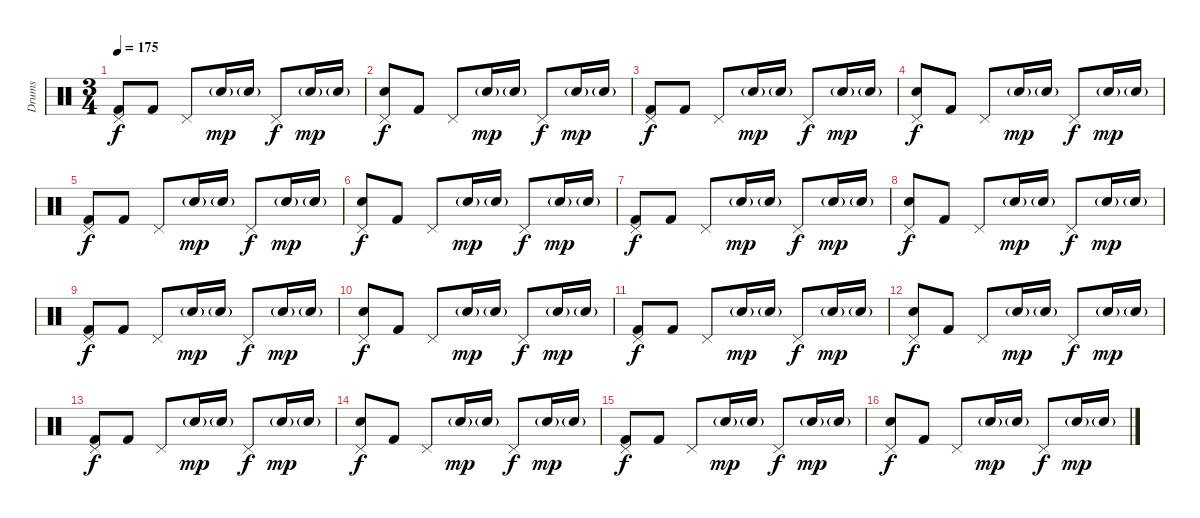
\track ("Drums" "Drums") {instrument percussion}
\staff {score}
\articulation defaults
\ts (3 4)
\tempo 175
\clef neutral
\ks c
("Pedal Hi-Hat (hit)" "Kick (hit) 2").8{dy f} "Kick (hit) 2".8 "Pedal Hi-Hat (hit)".8 "Electric Snare (hit)"{g}.16{dy mp} "Electric Snare (hit)"{g}.16 "Pedal Hi-Hat (hit)".8{dy f} "Electric Snare (hit)"{g}.16{dy mp} "Electric Snare (hit)"{g}.16 |
("Pedal Hi-Hat (hit)" "Electric Snare (hit)").8{dy f} "Kick (hit) 2".8 "Pedal Hi-Hat (hit)".8 "Electric Snare (hit)"{g}.16{dy mp} "Electric Snare (hit)"{g}.16 "Pedal Hi-Hat (hit)".8{dy f} "Electric Snare (hit)"{g}.16{dy mp} "Electric Snare (hit)"{g}.16 |
("Pedal Hi-Hat (hit)" "Kick (hit) 2").8{dy f} "Kick (hit) 2".8 "Pedal Hi-Hat (hit)".8 "Electric Snare (hit)"{g}.16{dy mp} "Electric Snare (hit)"{g}.16 "Pedal Hi-Hat (hit)".8{dy f} "Electric Snare (hit)"{g}.16{dy mp} "Electric Snare (hit)"{g}.16 |
("Pedal Hi-Hat (hit)" "Electric Snare (hit)").8{dy f} "Kick (hit) 2".8 "Pedal Hi-Hat (hit)".8 "Electric Snare (hit)"{g}.16{dy mp} "Electric Snare (hit)"{g}.16 "Pedal Hi-Hat (hit)".8{dy f} "Electric Snare (hit)"{g}.16{dy mp} "Electric Snare (hit)"{g}.16 |
("Pedal Hi-Hat (hit)" "Kick (hit) 2").8{dy f} "Kick (hit) 2".8 "Pedal Hi-Hat (hit)".8 "Electric Snare (hit)"{g}.16{dy mp} "Electric Snare (hit)"{g}.16 "Pedal Hi-Hat (hit)".8{dy f} "Electric Snare (hit)"{g}.16{dy mp} "Electric Snare (hit)"{g}.16 |
("Pedal Hi-Hat (hit)" "Electric Snare (hit)").8{dy f} "Kick (hit) 2".8 "Pedal Hi-Hat (hit)".8 "Electric Snare (hit)"{g}.16{dy mp} "Electric Snare (hit)"{g}.16 "Pedal Hi-Hat (hit)".8{dy f} "Electric Snare (hit)"{g}.16{dy mp} "Electric Snare (hit)"{g}.16 |
("Pedal Hi-Hat (hit)" "Kick (hit) 2").8{dy f} "Kick (hit) 2".8 "Pedal Hi-Hat (hit)".8 "Electric Snare (hit)"{g}.16{dy mp} "Electric Snare (hit)"{g}.16 "Pedal Hi-Hat (hit)".8{dy f} "Electric Snare (hit)"{g}.16{dy mp} "Electric Snare (hit)"{g}.16 |
("Pedal Hi-Hat (hit)" "Electric Snare (hit)").8{dy f} "Kick (hit) 2".8 "Pedal Hi-Hat (hit)".8 "Electric Snare (hit)"{g}.16{dy mp} "Electric Snare (hit)"{g}.16 "Pedal Hi-Hat (hit)".8{dy f} "Electric Snare (hit)"{g}.16{dy mp} "Electric Snare (hit)"{g}.16 |
("Pedal Hi-Hat (hit)" "Kick (hit) 2").8{dy f} "Kick (hit) 2".8 "Pedal Hi-Hat (hit)".8 "Electric Snare (hit)"{g}.16{dy mp} "Electric Snare (hit)"{g}.16 "Pedal Hi-Hat (hit)".8{dy f} "Electric Snare (hit)"{g}.16{dy mp} "Electric Snare (hit)"{g}.16 |
("Pedal Hi-Hat (hit)" "Electric Snare (hit)").8{dy f} "Kick (hit) 2".8 "Pedal Hi-Hat (hit)".8 "Electric Snare (hit)"{g}.16{dy mp} "Electric Snare (hit)"{g}.16 "Pedal Hi-Hat (hit)".8{dy f} "Electric Snare (hit)"{g}.16{dy mp} "Electric Snare (hit)"{g}.16 |
("Pedal Hi-Hat (hit)" "Kick (hit) 2").8{dy f} "Kick (hit) 2".8 "Pedal Hi-Hat (hit)".8 "Electric Snare (hit)"{g}.16{dy mp} "Electric Snare (hit)"{g}.16 "Pedal Hi-Hat (hit)".8{dy f} "Electric Snare (hit)"{g}.16{dy mp} "Electric Snare (hit)"{g}.16 |
("Pedal Hi-Hat (hit)" "Electric Snare (hit)").8{dy f} "Kick (hit) 2".8 "Pedal Hi-Hat (hit)".8 "Electric Snare (hit)"{g}.16{dy mp} "Electric Snare (hit)"{g}.16 "Pedal Hi-Hat (hit)".8{dy f} "Electric Snare (hit)"{g}.16{dy mp} "Electric Snare (hit)"{g}.16 |
("Pedal Hi-Hat (hit)" "Kick (hit) 2").8{dy f} "Kick (hit) 2".8 "Pedal Hi-Hat (hit)".8 "Electric Snare (hit)"{g}.16{dy mp} "Electric Snare (hit)"{g}.16 "Pedal Hi-Hat (hit)".8{dy f} "Electric Snare (hit)"{g}.16{dy mp} "Electric Snare (hit)"{g}.16 |
("Pedal Hi-Hat (hit)" "Electric Snare (hit)").8{dy f} "Kick (hit) 2".8 "Pedal Hi-Hat (hit)".8 "Electric Snare (hit)"{g}.16{dy mp} "Electric Snare (hit)"{g}.16 "Pedal Hi-Hat (hit)".8{dy f} "Electric Snare (hit)"{g}.16{dy mp} "Electric Snare (hit)"{g}.16 |
("Pedal Hi-Hat (hit)" "Kick (hit) 2").8{dy f} "Kick (hit) 2".8 "Pedal Hi-Hat (hit)".8 "Electric Snare (hit)"{g}.16{dy mp} "Electric Snare (hit)"{g}.16 "Pedal Hi-Hat (hit)".8{dy f} "Electric Snare (hit)"{g}.16{dy mp} "Electric Snare (hit)"{g}.16 |
("Pedal Hi-Hat (hit)" "Electric Snare (hit)").8{dy f} "Kick (hit) 2".8 "Pedal Hi-Hat (hit)".8 "Electric Snare (hit)"{g}.16{dy mp} "Electric Snare (hit)"{g}.16 "Pedal Hi-Hat (hit)".8{dy f} "Electric Snare (hit)"{g}.16{dy mp} "Electric Snare (hit)"{g}.16
